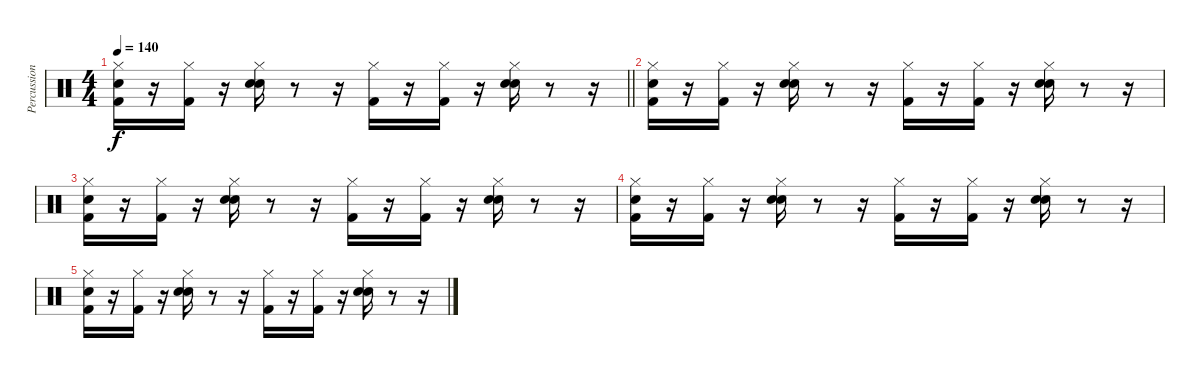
\track ("Percussion" "Percussion") {instrument percussion}
\staff {score}
\articulation defaults
\ts (4 4)
\tempo 140
\clef neutral
\barLineRight lightlight
\ks c
("Snare (hit)" "Kick (hit) 2" "Hi-Hat (closed)").16{dy f} r.16 ("Kick (hit) 2" "Hi-Hat (closed)").16 r.16 ("Hand Clap (hit)" "Hi-Hat (closed)" "Snare (hit) 2").16 r.8 r.16 ("Hi-Hat (closed)" "Kick (hit) 2").16 r.16 ("Hi-Hat (closed)" "Kick (hit) 2").16 r.16 ("Snare (hit) 2" "Hand Clap (hit)" "Hi-Hat (closed)").16 r.8 r.16 |
("Snare (hit)" "Kick (hit) 2" "Hi-Hat (closed)").16 r.16 ("Kick (hit) 2" "Hi-Hat (closed)").16 r.16 ("Hand Clap (hit)" "Hi-Hat (closed)" "Snare (hit) 2").16 r.8 r.16 ("Hi-Hat (closed)" "Kick (hit) 2").16 r.16 ("Hi-Hat (closed)" "Kick (hit) 2").16 r.16 ("Snare (hit) 2" "Hand Clap (hit)" "Hi-Hat (closed)").16 r.8 r.16 |
("Snare (hit)" "Kick (hit) 2" "Hi-Hat (closed)").16 r.16 ("Kick (hit) 2" "Hi-Hat (closed)").16 r.16 ("Hand Clap (hit)" "Hi-Hat (closed)" "Snare (hit) 2").16 r.8 r.16 ("Hi-Hat (closed)" "Kick (hit) 2").16 r.16 ("Hi-Hat (closed)" "Kick (hit) 2").16 r.16 ("Snare (hit) 2" "Hand Clap (hit)" "Hi-Hat (closed)").16 r.8 r.16 |
("Snare (hit)" "Kick (hit) 2" "Hi-Hat (closed)").16 r.16 ("Kick (hit) 2" "Hi-Hat (closed)").16 r.16 ("Hand Clap (hit)" "Hi-Hat (closed)" "Snare (hit) 2").16 r.8 r.16 ("Hi-Hat (closed)" "Kick (hit) 2").16 r.16 ("Hi-Hat (closed)" "Kick (hit) 2").16 r.16 ("Snare (hit) 2" "Hand Clap (hit)" "Hi-Hat (closed)").16{volume 0} r.8 r.16 |
("Snare (hit)" "Kick (hit) 2" "Hi-Hat (closed)").16 r.16 ("Kick (hit) 2" "Hi-Hat (closed)").16 r.16 ("Hand Clap (hit)" "Hi-Hat (closed)" "Snare (hit) 2").16 r.8 r.16 ("Hi-Hat (closed)" "Kick (hit) 2").16 r.16 ("Hi-Hat (closed)" "Kick (hit) 2").16 r.16 ("Snare (hit) 2" "Hand Clap (hit)" "Hi-Hat (closed)").16 r.8 r.16
